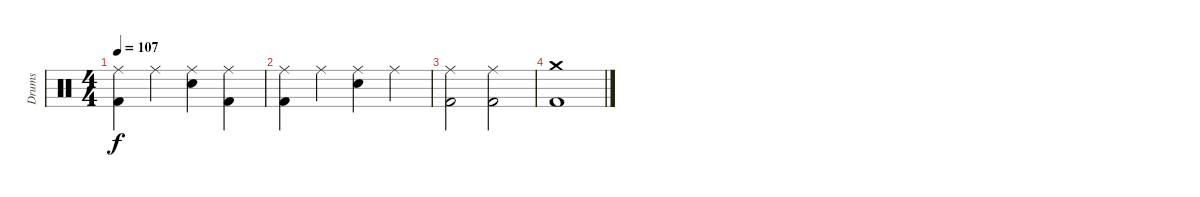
\track ("Drums" "Drums") {instrument percussion}
\staff {score}
\articulation defaults
\ts (4 4)
\tempo 107
\clef neutral
\ks c
("Ride (middle)" "Kick (hit) 2").4{dy f} "Ride (middle)".4 ("Ride (middle)" "Electric Snare (hit)").4 ("Ride (middle)" "Kick (hit) 2").4 |
("Ride (middle)" "Kick (hit) 2").4 "Ride (middle)".4 ("Ride (middle)" "Electric Snare (hit)").4 "Ride (middle)".4 |
("Ride (middle)" "Kick (hit) 2").2 ("Ride (middle)" "Kick (hit) 2").2 |
("Crash medium (hit)" "Kick (hit) 2").1
